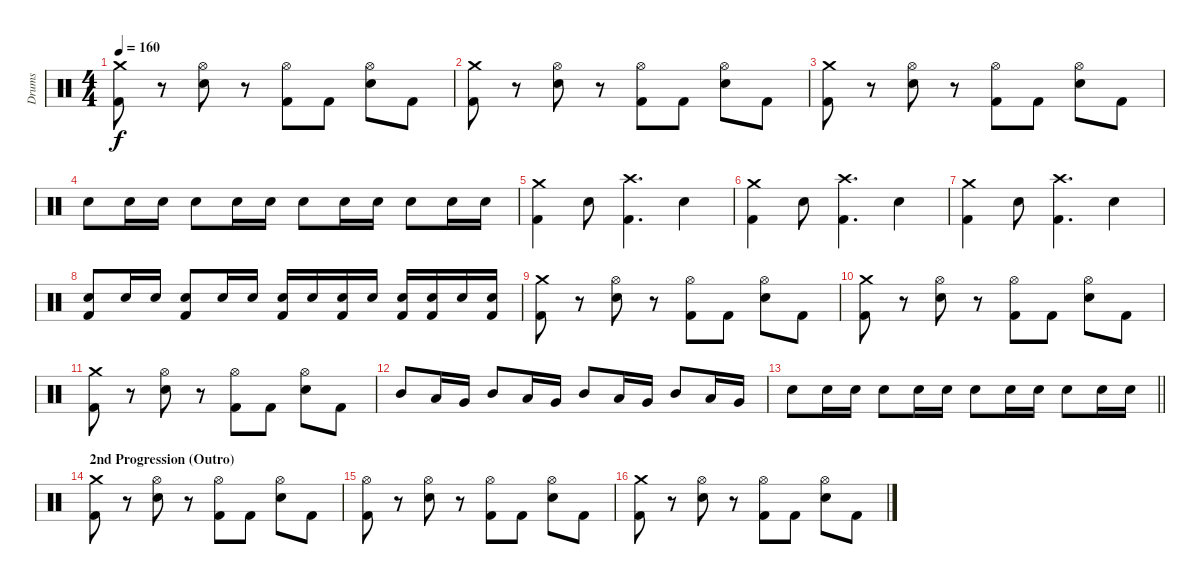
\track ("Drums" "Drums") {instrument percussion}
\staff {score}
\articulation defaults
\ts (4 4)
\tempo 160
\clef neutral
\ks c
("Crash medium (hit)" "Kick (hit) 2").8{dy f} r.8 ("Hi-Hat (open)" "Snare (hit) 2").8 r.8 ("Hi-Hat (open)" "Kick (hit) 2").8 "Kick (hit) 2".8 ("Hi-Hat (open)" "Snare (hit) 2").8 "Kick (hit) 2".8 |
("Crash medium (hit)" "Kick (hit) 2").8 r.8 ("Hi-Hat (open)" "Snare (hit) 2").8 r.8 ("Hi-Hat (open)" "Kick (hit) 2").8 "Kick (hit) 2".8 ("Hi-Hat (open)" "Snare (hit) 2").8 "Kick (hit) 2".8 |
("Crash medium (hit)" "Kick (hit) 2").8 r.8 ("Hi-Hat (open)" "Snare (hit) 2").8 r.8 ("Hi-Hat (open)" "Kick (hit) 2").8 "Kick (hit) 2".8 ("Hi-Hat (open)" "Snare (hit) 2").8 "Kick (hit) 2".8 |
"Snare (hit) 2".8 "Snare (hit) 2".16 "Snare (hit) 2".16 "Snare (hit) 2".8 "Snare (hit) 2".16 "Snare (hit) 2".16 "Snare (hit) 2".8 "Snare (hit) 2".16 "Snare (hit) 2".16 "Snare (hit) 2".8 "Snare (hit) 2".16 "Snare (hit) 2".16 |
("Crash medium (hit)" "Kick (hit) 2").4 "Snare (hit) 2".8 ("Crash high (hit)" "Kick (hit) 2").4{d} "Snare (hit) 2".4 |
("Crash medium (hit)" "Kick (hit) 2").4 "Snare (hit) 2".8 ("Crash high (hit)" "Kick (hit) 2").4{d} "Snare (hit) 2".4 |
("Crash medium (hit)" "Kick (hit) 2").4 "Snare (hit) 2".8 ("Crash high (hit)" "Kick (hit) 2").4{d} "Snare (hit) 2".4 |
("Snare (hit) 2" "Kick (hit) 2").8 "Snare (hit) 2".16 "Snare (hit) 2".16 ("Snare (hit) 2" "Kick (hit) 2").8 "Snare (hit) 2".16 "Snare (hit) 2".16 ("Snare (hit) 2" "Kick (hit) 2").16 "Snare (hit) 2".16 ("Snare (hit) 2" "Kick (hit) 2").16 "Snare (hit) 2".16 ("Snare (hit) 2" "Kick (hit) 2").16 ("Snare (hit) 2" "Kick (hit) 2").16 "Snare (hit) 2".16 ("Snare (hit) 2" "Kick (hit) 2").16 |
("Crash medium (hit)" "Kick (hit) 2").8 r.8 ("Hi-Hat (open)" "Snare (hit) 2").8 r.8 ("Hi-Hat (open)" "Kick (hit) 2").8 "Kick (hit) 2".8 ("Hi-Hat (open)" "Snare (hit) 2").8 "Kick (hit) 2".8 |
("Crash medium (hit)" "Kick (hit) 2").8 r.8 ("Hi-Hat (open)" "Snare (hit) 2").8 r.8 ("Hi-Hat (open)" "Kick (hit) 2").8 "Kick (hit) 2".8 ("Hi-Hat (open)" "Snare (hit) 2").8 "Kick (hit) 2".8 |
("Crash medium (hit)" "Kick (hit) 2").8 r.8 ("Hi-Hat (open)" "Snare (hit) 2").8 r.8 ("Hi-Hat (open)" "Kick (hit) 2").8 "Kick (hit) 2".8 ("Hi-Hat (open)" "Snare (hit) 2").8 "Kick (hit) 2".8 |
"Mid Tom (hit)".8 "Low Tom (hit)".16 "Very Low Tom (hit)".16 "Mid Tom (hit)".8 "Low Tom (hit)".16 "Very Low Tom (hit)".16 "Mid Tom (hit)".8 "Low Tom (hit)".16 "Very Low Tom (hit)".16 "Mid Tom (hit)".8 "Low Tom (hit)".16 "Very Low Tom (hit)".16 |
\barLineRight lightlight "Snare (hit) 2".8 "Snare (hit) 2".16 "Snare (hit) 2".16 "Snare (hit) 2".8 "Snare (hit) 2".16 "Snare (hit) 2".16 "Snare (hit) 2".8 "Snare (hit) 2".16 "Snare (hit) 2".16 "Snare (hit) 2".8 "Snare (hit) 2".16 "Snare (hit) 2".16
|
\section ("" "2nd Progression (Outro)")
("Crash medium (hit)" "Kick (hit) 2").8 r.8 ("Hi-Hat (open)" "Snare (hit) 2").8 r.8 ("Hi-Hat (open)" "Kick (hit) 2").8 "Kick (hit) 2".8 ("Hi-Hat (open)" "Snare (hit) 2").8 "Kick (hit) 2".8 |
("Hi-Hat (open)" "Kick (hit) 2").8 r.8 ("Hi-Hat (open)" "Snare (hit) 2").8 r.8 ("Hi-Hat (open)" "Kick (hit) 2").8 "Kick (hit) 2".8 ("Hi-Hat (open)" "Snare (hit) 2").8 "Kick (hit) 2".8 |
("Crash medium (hit)" "Kick (hit) 2").8 r.8 ("Hi-Hat (open)" "Snare (hit) 2").8 r.8 ("Hi-Hat (open)" "Kick (hit) 2").8 "Kick (hit) 2".8 ("Hi-Hat (open)" "Snare (hit) 2").8 "Kick (hit) 2".8
